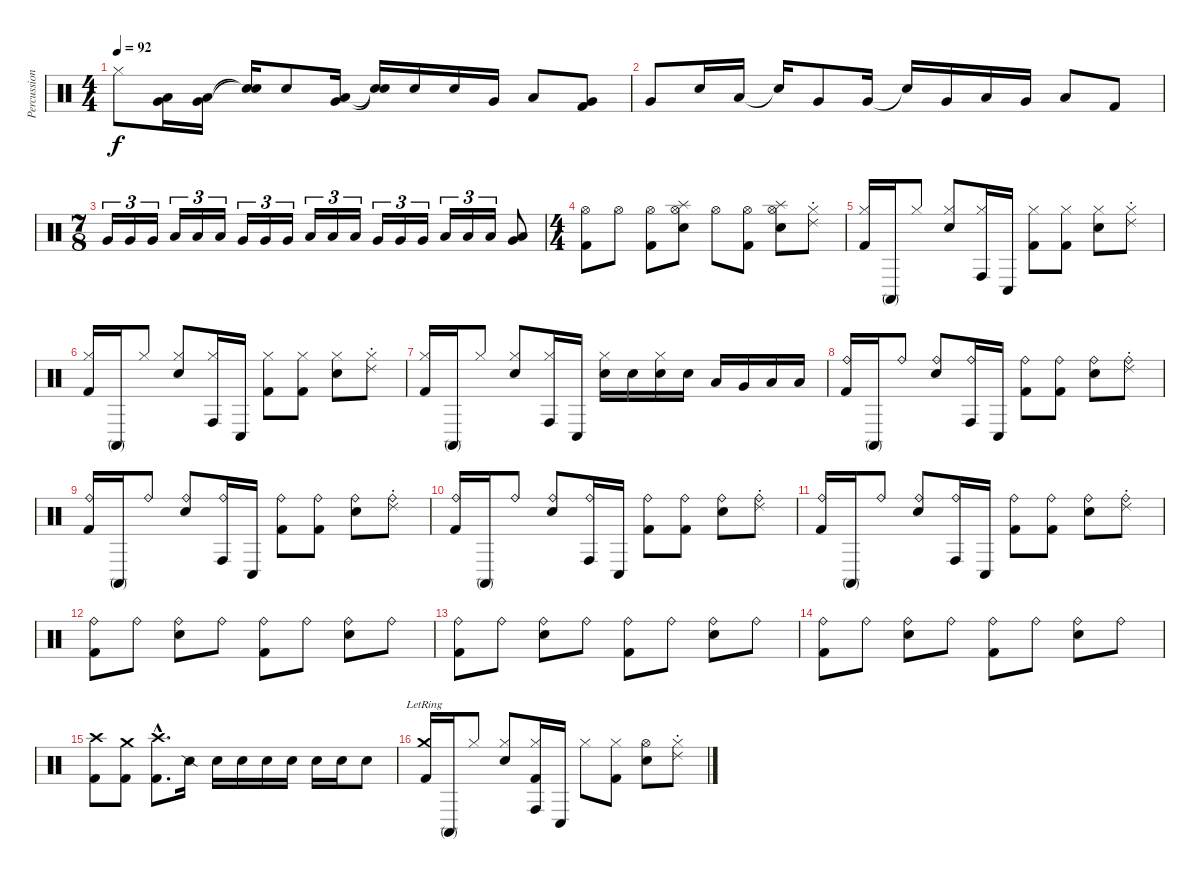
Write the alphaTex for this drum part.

\track ("Percussion" "Percussion") {instrument percussion}
\staff {score}
\articulation defaults
\ts (4 4)
\tempo 92
\clef neutral
\ks c "Hi-Hat (closed)".8{dy f}
("Low Tom (hit)" "Very Low Tom (hit)").16 ("Very Low Tom (hit)" "Low Floor Tom (hit)").16 ("Snare (hit)"{t} "Snare (hit)"{t}).16 "Metronome (bell)".8 ("Low Tom (hit)" "Very Low Tom (hit)").16 ("Snare (hit)"{t} "Snare (hit)"{t}).16 "Metronome (bell)".16 "Metronome (bell)".16 "Very Low Tom (hit)".16 "Low Floor Tom (hit)".8 ("Very Low Tom (hit)" "Kick (hit) 2").8 |
"Very Low Tom (hit)".8 "Metronome (bell)".16 "Low Tom (hit)".16 "Snare (hit)"{t}.16 "Very Low Tom (hit)".8 "Very Low Tom (hit)".16 "Snare (hit)"{t}.16 "Very Low Tom (hit)".16 "Low Tom (hit)".16 "Very Low Tom (hit)".16 "Low Floor Tom (hit)".8 "Kick (hit) 2".8 |
\ts (7 8)
"Very Low Tom (hit)".16{tu (3 2)} "Very Low Tom (hit)".16{tu (3 2)} "Very Low Tom (hit)".16{tu (3 2)} "Low Floor Tom (hit)".16{tu (3 2)} "Low Floor Tom (hit)".16{tu (3 2)} "Low Floor Tom (hit)".16{tu (3 2)} "Very Low Tom (hit)".16{tu (3 2)} "Very Low Tom (hit)".16{tu (3 2)} "Very Low Tom (hit)".16{tu (3 2)} "Low Floor Tom (hit)".16{tu (3 2)} "Low Floor Tom (hit)".16{tu (3 2)} "Low Floor Tom (hit)".16{tu (3 2)} "Very Low Tom (hit)".16{tu (3 2)} "Very Low Tom (hit)".16{tu (3 2)} "Very Low Tom (hit)".16{tu (3 2)} "Low Floor Tom (hit)".16{tu (3 2)} "Low Floor Tom (hit)".16{tu (3 2)} "Low Floor Tom (hit)".16{tu (3 2)} ("Low Tom (hit)" "Very Low Tom (hit)").8 |
\ts (4 4)
("Hi-Hat (open)" "Kick (hit) 2").8 "Hi-Hat (open)".8 ("Hi-Hat (open)" "Kick (hit) 2").8 ("Hi-Hat (open)" "Splash (hit)" "Metronome (bell)").8 "Hi-Hat (open)".8 ("Hi-Hat (open)" "Kick (hit) 2").8 ("Hi-Hat (open)" "Splash (hit)" "Metronome (bell)").8 ("Hi-Hat (closed)" "Ride (choke) 2").8 |
("Hi-Hat (closed)" "Kick (hit) 2").16 "Conga high (mute)".16 "Hi-Hat (closed)".8 ("Hi-Hat (closed)" "Metronome (bell)").8 ("Hi-Hat (closed)" "Conga high (hit)").16 "Conga low (hit)".16 ("Hi-Hat (closed)" "Kick (hit) 2").8 ("Hi-Hat (closed)" "Kick (hit) 2").8 ("Hi-Hat (closed)" "Metronome (bell)").8 ("Hi-Hat (closed)" "Ride (choke) 2").8 |
("Hi-Hat (closed)" "Kick (hit) 2").16 "Conga high (mute)".16 "Hi-Hat (closed)".8 ("Hi-Hat (closed)" "Metronome (bell)").8 ("Hi-Hat (closed)" "Conga high (hit)").16 "Conga low (hit)".16 ("Hi-Hat (closed)" "Kick (hit) 2").8 ("Hi-Hat (closed)" "Kick (hit) 2").8 ("Hi-Hat (closed)" "Metronome (bell)").8 ("Hi-Hat (closed)" "Ride (choke) 2").8 |
("Hi-Hat (closed)" "Kick (hit) 2").16 "Conga high (mute)".16 "Hi-Hat (closed)".8 ("Hi-Hat (closed)" "Metronome (bell)").8 ("Hi-Hat (closed)" "Conga high (hit)").16 "Conga low (hit)".16 ("Hi-Hat (closed)" "Electric Snare (hit)").16 "Electric Snare (hit)".16 ("Hi-Hat (closed)" "Electric Snare (hit)").16 "Electric Snare (hit)".16 "Low Tom (hit)".16 "Very Low Tom (hit)".16 "Low Floor Tom (hit)".16 "Low Floor Tom (hit)".16 |
("Ride (bell)" "Kick (hit) 2").16 "Conga high (mute)".16 "Ride (bell)".8 ("Ride (bell)" "Metronome (bell)").8 ("Ride (bell)" "Conga high (hit)").16 "Conga low (hit)".16 ("Ride (bell)" "Kick (hit) 2").8 ("Ride (bell)" "Kick (hit) 2").8 ("Ride (bell)" "Metronome (bell)").8 ("Ride (bell)" "Ride (choke) 2").8 |
("Ride (bell)" "Kick (hit) 2").16 "Conga high (mute)".16 "Ride (bell)".8 ("Ride (bell)" "Metronome (bell)").8 ("Ride (bell)" "Conga high (hit)").16 "Conga low (hit)".16 ("Ride (bell)" "Kick (hit) 2").8 ("Ride (bell)" "Kick (hit) 2").8 ("Ride (bell)" "Metronome (bell)").8 ("Ride (bell)" "Ride (choke) 2").8 |
("Ride (bell)" "Kick (hit) 2").16 "Conga high (mute)".16 "Ride (bell)".8 ("Ride (bell)" "Metronome (bell)").8 ("Ride (bell)" "Conga high (hit)").16 "Conga low (hit)".16 ("Ride (bell)" "Kick (hit) 2").8 ("Ride (bell)" "Kick (hit) 2").8 ("Ride (bell)" "Metronome (bell)").8 ("Ride (bell)" "Ride (choke) 2").8 |
("Ride (bell)" "Kick (hit) 2").16 "Conga high (mute)".16 "Ride (bell)".8 ("Ride (bell)" "Metronome (bell)").8 ("Ride (bell)" "Conga high (hit)").16 "Conga low (hit)".16 ("Ride (bell)" "Kick (hit) 2").8 ("Ride (bell)" "Kick (hit) 2").8 ("Ride (bell)" "Metronome (bell)").8 ("Ride (bell)" "Ride (choke) 2").8 |
("Ride (bell)" "Kick (hit) 2").8 "Ride (bell)".8 ("Ride (bell)" "Metronome (bell)").8 "Ride (bell)".8 ("Ride (bell)" "Kick (hit) 2").8 "Ride (bell)".8 ("Ride (bell)" "Metronome (bell)").8 "Ride (bell)".8 |
("Ride (bell)" "Kick (hit) 2").8 "Ride (bell)".8 ("Ride (bell)" "Metronome (bell)").8 "Ride (bell)".8 ("Ride (bell)" "Kick (hit) 2").8 "Ride (bell)".8 ("Ride (bell)" "Metronome (bell)").8 "Ride (bell)".8 |
("Ride (bell)" "Kick (hit) 2").8 "Ride (bell)".8 ("Ride (bell)" "Metronome (bell)").8 "Ride (bell)".8 ("Ride (bell)" "Kick (hit) 2").8 "Ride (bell)".8 ("Ride (bell)" "Metronome (bell)").8 "Ride (bell)".8 |
("Crash high (hit)" "Kick (hit) 2").8 ("Crash medium (hit)" "Kick (hit) 2").8 ("Crash high (hit)"{hac} "Kick (hit) 2"{hac}).8{d} "Snare (side stick) 2".16 "Metronome (bell)".16 "Metronome (bell)".16 "Metronome (bell)".16 "Metronome (bell)".16 "Metronome (bell)".16 "Metronome (bell)".16 "Metronome (bell)".8 |
("Crash medium (hit)"{lr} "Kick (hit) 2").16 "Conga high (mute)".16 "Hi-Hat (closed)".8 ("Hi-Hat (closed)" "Metronome (bell)").8 ("Hi-Hat (closed)" "Conga high (hit)" "Kick (hit) 2").16 "Conga low (hit)".16 "Hi-Hat (closed)".8 ("Hi-Hat (closed)" "Kick (hit) 2").8 ("Hi-Hat (open)" "Metronome (bell)").8 ("Hi-Hat (closed)" "Ride (choke) 2").8
